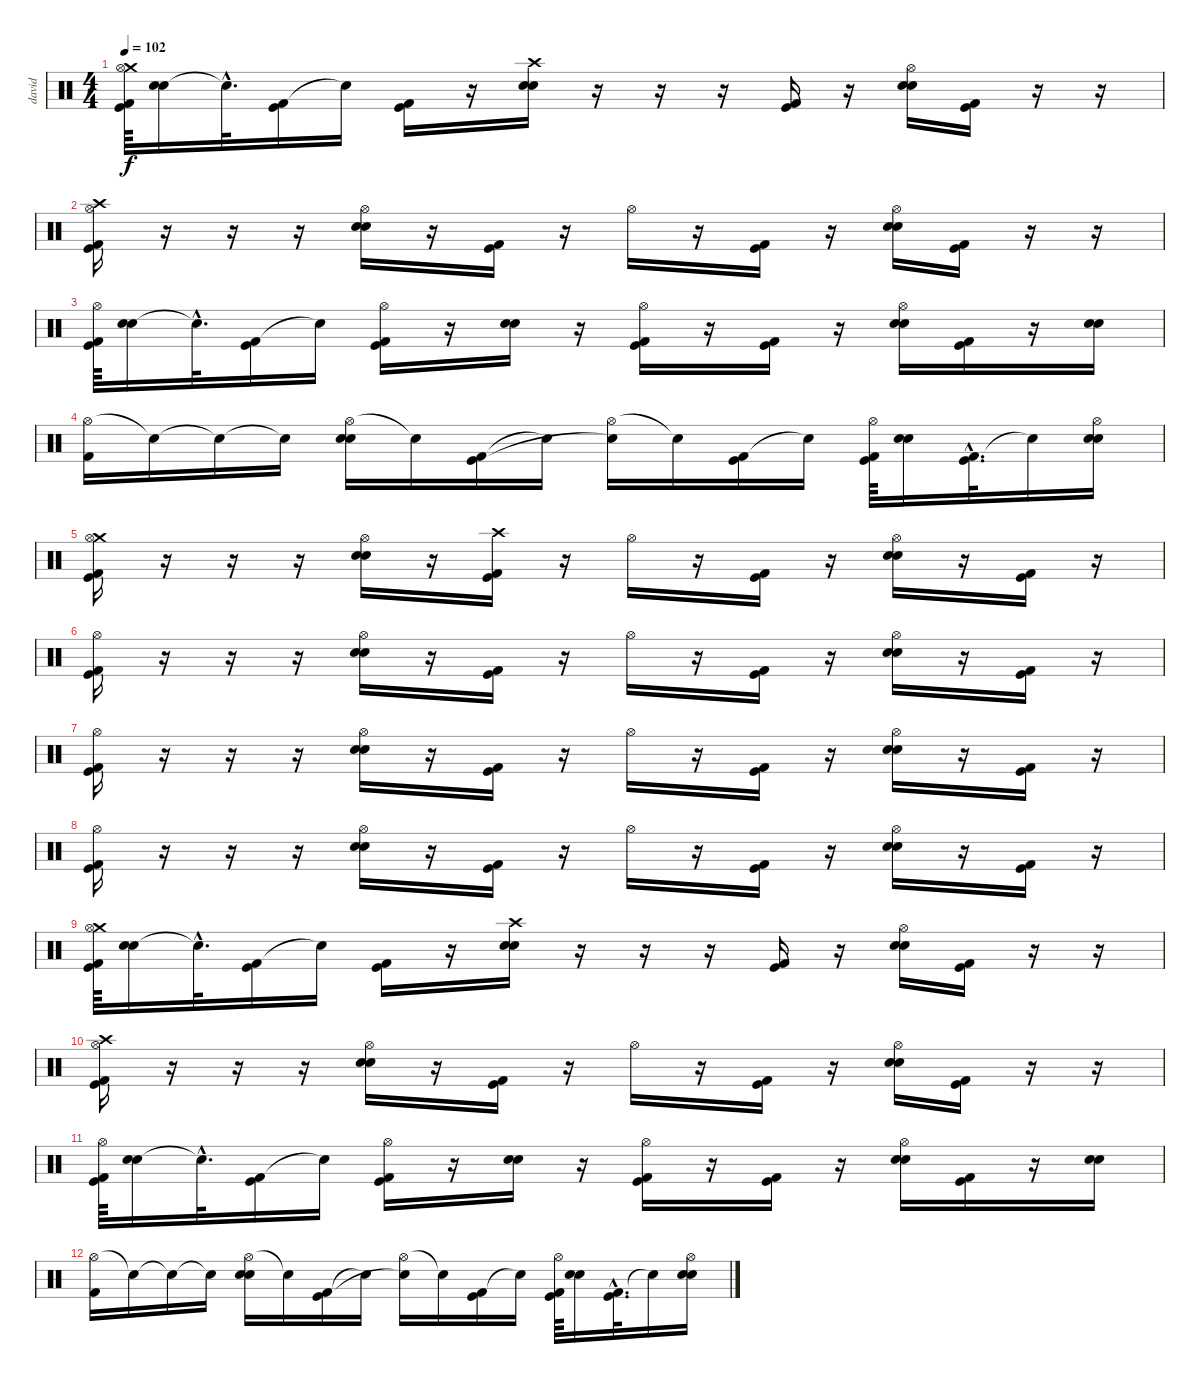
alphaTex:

\track ("david" "david") {instrument percussion}
\staff {score}
\articulation defaults
\ts (4 4)
\tempo 102
\clef neutral
\ks c
("Crash medium (hit)" "Hi-Hat (open)" "Kick (hit) 2" "Kick (hit)").64{dy f} ("Electric Snare (hit)" "Snare (hit) 2").16 "Snare (hit)"{hac t}.32{d} ("Kick (hit) 2" "Kick (hit)").16 "Snare (hit)"{t}.16 ("Kick (hit) 2" "Kick (hit)").16 r.16 ("Crash high (hit)" "Electric Snare (hit)" "Snare (hit) 2").16 r.16 r.16 r.16 ("Kick (hit) 2" "Kick (hit)").16 r.16 ("Hi-Hat (open)" "Electric Snare (hit)" "Snare (hit) 2").16 ("Kick (hit) 2" "Kick (hit)").16 r.16 r.16 |
("Hi-Hat (open)" "Crash high (hit)" "Kick (hit) 2" "Kick (hit)").16 r.16 r.16 r.16 ("Hi-Hat (open)" "Electric Snare (hit)" "Snare (hit) 2").16 r.16 ("Kick (hit) 2" "Kick (hit)").16 r.16 "Hi-Hat (open)".16 r.16 ("Kick (hit) 2" "Kick (hit)").16 r.16 ("Hi-Hat (open)" "Electric Snare (hit)" "Snare (hit) 2").16 ("Kick (hit) 2" "Kick (hit)").16 r.16 r.16 |
("Hi-Hat (open)" "Kick (hit) 2" "Kick (hit)").64 ("Electric Snare (hit)" "Snare (hit) 2").16 "Snare (hit)"{hac t}.32{d} ("Kick (hit) 2" "Kick (hit)").16 "Snare (hit)"{t}.16 ("Hi-Hat (open)" "Kick (hit) 2" "Kick (hit)").16 r.16 ("Electric Snare (hit)" "Snare (hit) 2").16 r.16 ("Hi-Hat (open)" "Kick (hit) 2" "Kick (hit)").16 r.16 ("Kick (hit) 2" "Kick (hit)").16 r.16 ("Hi-Hat (open)" "Electric Snare (hit)" "Snare (hit) 2").16 ("Kick (hit) 2" "Kick (hit)").16 r.16 ("Electric Snare (hit)" "Snare (hit) 2").16 |
("Hi-Hat (open)" "Kick (hit) 2").16 "Snare (hit)"{t}.16 "Snare (hit)"{t}.16 "Snare (hit)"{t}.16 ("Hi-Hat (open)" "Electric Snare (hit)" "Snare (hit) 2").16 "Snare (hit)"{t}.16 ("Kick (hit) 2" "Kick (hit)").16 "Snare (hit)"{t}.16 ("Hi-Hat (open)" "Snare (hit)"{t}).16 "Snare (hit)"{t}.16 ("Kick (hit) 2" "Kick (hit)").16 "Snare (hit)"{t}.16 ("Hi-Hat (open)" "Kick (hit) 2" "Kick (hit)").64 ("Electric Snare (hit)" "Snare (hit) 2").16 ("Kick (hit) 2"{hac} "Kick (hit)"{hac}).32{d} "Snare (hit)"{t}.16 ("Hi-Hat (open)" "Electric Snare (hit)" "Snare (hit) 2").16 |
("Crash medium (hit)" "Hi-Hat (open)" "Kick (hit) 2" "Kick (hit)").16 r.16 r.16 r.16 ("Hi-Hat (open)" "Electric Snare (hit)" "Snare (hit) 2").16 r.16 ("Crash high (hit)" "Kick (hit) 2" "Kick (hit)").16 r.16 "Hi-Hat (open)".16 r.16 ("Kick (hit) 2" "Kick (hit)").16 r.16 ("Hi-Hat (open)" "Electric Snare (hit)" "Snare (hit) 2").16 r.16 ("Kick (hit) 2" "Kick (hit)").16 r.16 |
("Hi-Hat (open)" "Kick (hit) 2" "Kick (hit)").16 r.16 r.16 r.16 ("Hi-Hat (open)" "Electric Snare (hit)" "Snare (hit) 2").16 r.16 ("Kick (hit) 2" "Kick (hit)").16 r.16 "Hi-Hat (open)".16 r.16 ("Kick (hit) 2" "Kick (hit)").16 r.16 ("Hi-Hat (open)" "Electric Snare (hit)" "Snare (hit) 2").16 r.16 ("Kick (hit) 2" "Kick (hit)").16 r.16 |
("Hi-Hat (open)" "Kick (hit) 2" "Kick (hit)").16 r.16 r.16 r.16 ("Hi-Hat (open)" "Electric Snare (hit)" "Snare (hit) 2").16 r.16 ("Kick (hit) 2" "Kick (hit)").16 r.16 "Hi-Hat (open)".16 r.16 ("Kick (hit) 2" "Kick (hit)").16 r.16 ("Hi-Hat (open)" "Electric Snare (hit)" "Snare (hit) 2").16 r.16 ("Kick (hit) 2" "Kick (hit)").16 r.16 |
("Hi-Hat (open)" "Kick (hit) 2" "Kick (hit)").16 r.16 r.16 r.16 ("Hi-Hat (open)" "Electric Snare (hit)" "Snare (hit) 2").16 r.16 ("Kick (hit) 2" "Kick (hit)").16 r.16 "Hi-Hat (open)".16 r.16 ("Kick (hit) 2" "Kick (hit)").16 r.16 ("Hi-Hat (open)" "Electric Snare (hit)" "Snare (hit) 2").16 r.16 ("Kick (hit) 2" "Kick (hit)").16 r.16 |
("Crash medium (hit)" "Hi-Hat (open)" "Kick (hit) 2" "Kick (hit)").64 ("Electric Snare (hit)" "Snare (hit) 2").16 "Snare (hit)"{hac t}.32{d} ("Kick (hit) 2" "Kick (hit)").16 "Snare (hit)"{t}.16 ("Kick (hit) 2" "Kick (hit)").16 r.16 ("Crash high (hit)" "Electric Snare (hit)" "Snare (hit) 2").16 r.16 r.16 r.16 ("Kick (hit) 2" "Kick (hit)").16 r.16 ("Hi-Hat (open)" "Electric Snare (hit)" "Snare (hit) 2").16 ("Kick (hit) 2" "Kick (hit)").16 r.16 r.16 |
("Hi-Hat (open)" "Crash high (hit)" "Kick (hit) 2" "Kick (hit)").16 r.16 r.16 r.16 ("Hi-Hat (open)" "Electric Snare (hit)" "Snare (hit) 2").16 r.16 ("Kick (hit) 2" "Kick (hit)").16 r.16 "Hi-Hat (open)".16 r.16 ("Kick (hit) 2" "Kick (hit)").16 r.16 ("Hi-Hat (open)" "Electric Snare (hit)" "Snare (hit) 2").16 ("Kick (hit) 2" "Kick (hit)").16 r.16 r.16 |
("Hi-Hat (open)" "Kick (hit) 2" "Kick (hit)").64 ("Electric Snare (hit)" "Snare (hit) 2").16 "Snare (hit)"{hac t}.32{d} ("Kick (hit) 2" "Kick (hit)").16 "Snare (hit)"{t}.16 ("Hi-Hat (open)" "Kick (hit) 2" "Kick (hit)").16 r.16 ("Electric Snare (hit)" "Snare (hit) 2").16 r.16 ("Hi-Hat (open)" "Kick (hit) 2" "Kick (hit)").16 r.16 ("Kick (hit) 2" "Kick (hit)").16 r.16 ("Hi-Hat (open)" "Electric Snare (hit)" "Snare (hit) 2").16 ("Kick (hit) 2" "Kick (hit)").16 r.16 ("Electric Snare (hit)" "Snare (hit) 2").16 |
("Hi-Hat (open)" "Kick (hit) 2").16 "Snare (hit)"{t}.16 "Snare (hit)"{t}.16 "Snare (hit)"{t}.16 ("Hi-Hat (open)" "Electric Snare (hit)" "Snare (hit) 2").16 "Snare (hit)"{t}.16 ("Kick (hit) 2" "Kick (hit)").16 "Snare (hit)"{t}.16 ("Hi-Hat (open)" "Snare (hit)"{t}).16 "Snare (hit)"{t}.16 ("Kick (hit) 2" "Kick (hit)").16 "Snare (hit)"{t}.16 ("Hi-Hat (open)" "Kick (hit) 2" "Kick (hit)").64 ("Electric Snare (hit)" "Snare (hit) 2").16 ("Kick (hit) 2"{hac} "Kick (hit)"{hac}).32{d} "Snare (hit)"{t}.16 ("Hi-Hat (open)" "Electric Snare (hit)" "Snare (hit) 2").16
